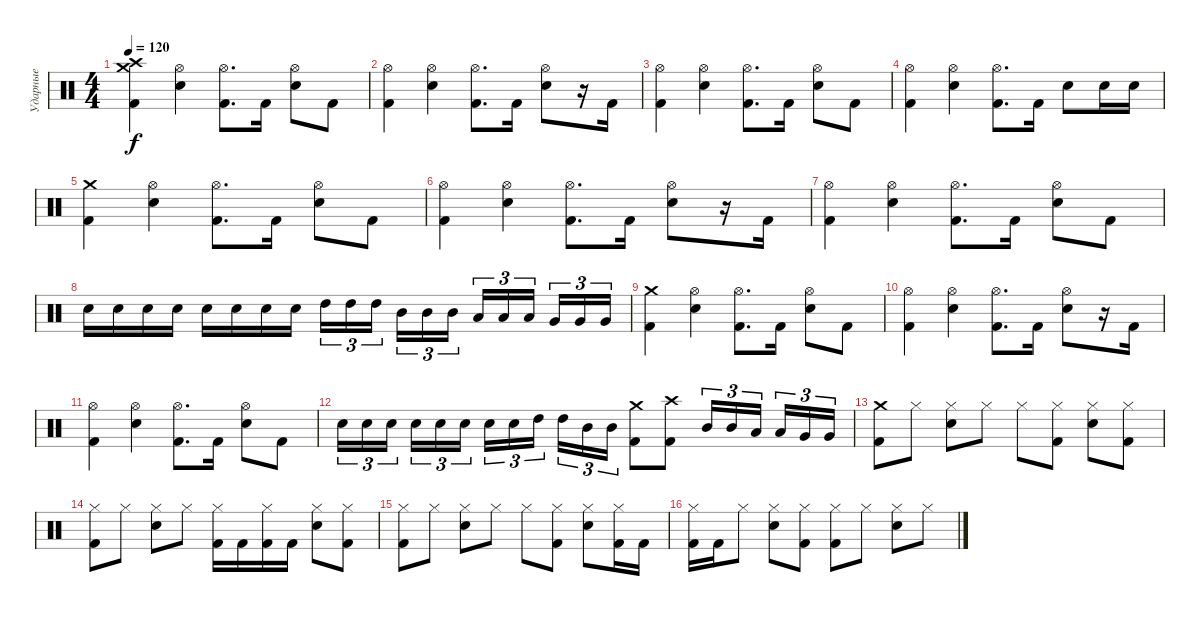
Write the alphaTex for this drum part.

\track ("Ударные" "Ударные") {instrument percussion}
\staff {score}
\articulation defaults
\ts (4 4)
\tempo 120
\clef neutral
\ks c
("Crash medium (hit)" "Crash high (hit)" "Kick (hit) 2").4{dy f} ("Hi-Hat (open)" "Electric Snare (hit)").4 ("Hi-Hat (open)" "Kick (hit) 2").8{d} "Kick (hit) 2".16 ("Hi-Hat (open)" "Electric Snare (hit)").8 "Kick (hit) 2".8 |
("Hi-Hat (open)" "Kick (hit) 2").4 ("Hi-Hat (open)" "Electric Snare (hit)").4 ("Hi-Hat (open)" "Kick (hit) 2").8{d} "Kick (hit) 2".16 ("Hi-Hat (open)" "Electric Snare (hit)").8 r.16 "Kick (hit) 2".16 |
("Hi-Hat (open)" "Kick (hit) 2").4 ("Hi-Hat (open)" "Electric Snare (hit)").4 ("Hi-Hat (open)" "Kick (hit) 2").8{d} "Kick (hit) 2".16 ("Hi-Hat (open)" "Electric Snare (hit)").8 "Kick (hit) 2".8 |
("Hi-Hat (open)" "Kick (hit) 2").4 ("Hi-Hat (open)" "Electric Snare (hit)").4 ("Hi-Hat (open)" "Kick (hit) 2").8{d} "Kick (hit) 2".16 "Electric Snare (hit)".8 "Electric Snare (hit)".16 "Electric Snare (hit)".16 |
("Crash medium (hit)" "Kick (hit) 2").4 ("Hi-Hat (open)" "Electric Snare (hit)").4 ("Hi-Hat (open)" "Kick (hit) 2").8{d} "Kick (hit) 2".16 ("Hi-Hat (open)" "Electric Snare (hit)").8 "Kick (hit) 2".8 |
("Hi-Hat (open)" "Kick (hit) 2").4 ("Hi-Hat (open)" "Electric Snare (hit)").4 ("Hi-Hat (open)" "Kick (hit) 2").8{d} "Kick (hit) 2".16 ("Hi-Hat (open)" "Electric Snare (hit)").8 r.16 "Kick (hit) 2".16 |
("Hi-Hat (open)" "Kick (hit) 2").4 ("Hi-Hat (open)" "Electric Snare (hit)").4 ("Hi-Hat (open)" "Kick (hit) 2").8{d} "Kick (hit) 2".16 ("Hi-Hat (open)" "Electric Snare (hit)").8 "Kick (hit) 2".8 |
"Electric Snare (hit)".16 "Electric Snare (hit)".16 "Electric Snare (hit)".16 "Electric Snare (hit)".16 "Electric Snare (hit)".16 "Electric Snare (hit)".16 "Electric Snare (hit)".16 "Electric Snare (hit)".16 "High Tom (hit)".16{tu (3 2)} "High Tom (hit)".16{tu (3 2)} "High Tom (hit)".16{tu (3 2) beam splitsecondary} "Mid Tom (hit)".16{tu (3 2)} "Mid Tom (hit)".16{tu (3 2)} "Mid Tom (hit)".16{tu (3 2)} "Low Tom (hit)".16{tu (3 2)} "Low Tom (hit)".16{tu (3 2)} "Low Tom (hit)".16{tu (3 2) beam splitsecondary} "Very Low Tom (hit)".16{tu (3 2)} "Very Low Tom (hit)".16{tu (3 2)} "Very Low Tom (hit)".16{tu (3 2)} |
("Crash medium (hit)" "Kick (hit) 2").4 ("Hi-Hat (open)" "Electric Snare (hit)").4 ("Hi-Hat (open)" "Kick (hit) 2").8{d} "Kick (hit) 2".16 ("Hi-Hat (open)" "Electric Snare (hit)").8 "Kick (hit) 2".8 |
("Hi-Hat (open)" "Kick (hit) 2").4 ("Hi-Hat (open)" "Electric Snare (hit)").4 ("Hi-Hat (open)" "Kick (hit) 2").8{d} "Kick (hit) 2".16 ("Hi-Hat (open)" "Electric Snare (hit)").8 r.16 "Kick (hit) 2".16 |
("Hi-Hat (open)" "Kick (hit) 2").4 ("Hi-Hat (open)" "Electric Snare (hit)").4 ("Hi-Hat (open)" "Kick (hit) 2").8{d} "Kick (hit) 2".16 ("Hi-Hat (open)" "Electric Snare (hit)").8 "Kick (hit) 2".8 |
"Electric Snare (hit)".16{tu (3 2)} "Electric Snare (hit)".16{tu (3 2)} "Electric Snare (hit)".16{tu (3 2) beam splitsecondary} "Electric Snare (hit)".16{tu (3 2)} "Electric Snare (hit)".16{tu (3 2)} "Electric Snare (hit)".16{tu (3 2)} "Electric Snare (hit)".16{tu (3 2)} "Electric Snare (hit)".16{tu (3 2)} "High Tom (hit)".16{tu (3 2) beam splitsecondary} "High Tom (hit)".16{tu (3 2)} "Mid Tom (hit)".16{tu (3 2)} "Mid Tom (hit)".16{tu (3 2)} ("Crash medium (hit)" "Kick (hit) 2").8 ("Crash high (hit)" "Kick (hit) 2").8 "Mid Tom (hit)".16{tu (3 2)} "Mid Tom (hit)".16{tu (3 2)} "Low Tom (hit)".16{tu (3 2) beam splitsecondary} "Low Tom (hit)".16{tu (3 2)} "Very Low Tom (hit)".16{tu (3 2)} "Very Low Tom (hit)".16{tu (3 2)} |
("Crash medium (hit)" "Kick (hit) 2").8 "Hi-Hat (closed)".8 ("Hi-Hat (closed)" "Electric Snare (hit)").8 "Hi-Hat (closed)".8 "Hi-Hat (closed)".8 ("Hi-Hat (closed)" "Kick (hit) 2").8 ("Hi-Hat (closed)" "Electric Snare (hit)").8 ("Hi-Hat (closed)" "Kick (hit) 2").8 |
("Hi-Hat (closed)" "Kick (hit) 2").8 "Hi-Hat (closed)".8 ("Hi-Hat (closed)" "Electric Snare (hit)").8 "Hi-Hat (closed)".8 ("Hi-Hat (closed)" "Kick (hit) 2").16 "Kick (hit) 2".16 ("Hi-Hat (closed)" "Kick (hit) 2").16 "Kick (hit) 2".16 ("Hi-Hat (closed)" "Electric Snare (hit)").8 ("Hi-Hat (closed)" "Kick (hit) 2").8 |
("Hi-Hat (closed)" "Kick (hit) 2").8 "Hi-Hat (closed)".8 ("Hi-Hat (closed)" "Electric Snare (hit)").8 "Hi-Hat (closed)".8 "Hi-Hat (closed)".8 ("Hi-Hat (closed)" "Kick (hit) 2").8 ("Hi-Hat (closed)" "Electric Snare (hit)").8 ("Hi-Hat (closed)" "Kick (hit) 2").16 "Kick (hit) 2".16 |
("Hi-Hat (closed)" "Kick (hit) 2").16 "Kick (hit) 2".16 "Hi-Hat (closed)".8 ("Hi-Hat (closed)" "Electric Snare (hit)").8 ("Hi-Hat (closed)" "Kick (hit) 2").8 ("Hi-Hat (closed)" "Kick (hit) 2").8 "Hi-Hat (closed)".8 ("Hi-Hat (closed)" "Electric Snare (hit)").8 "Hi-Hat (closed)".8
